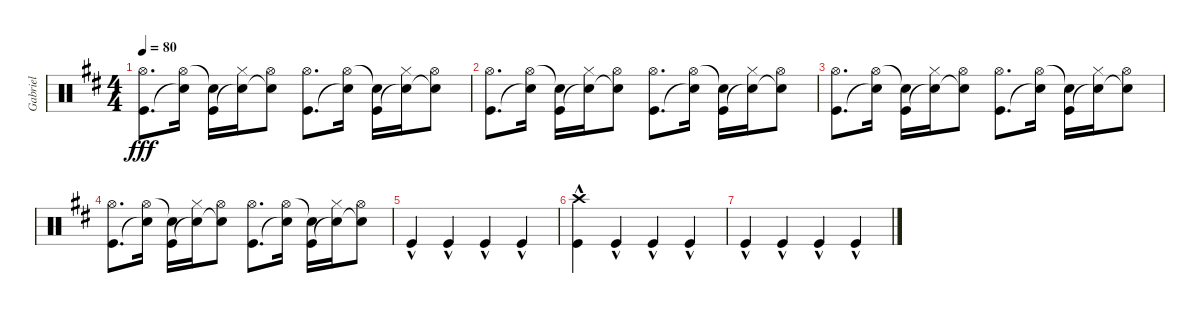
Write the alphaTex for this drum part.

\track ("Gabriel" "Gabriel") {instrument percussion}
\staff {score}
\articulation defaults
\ts (4 4)
\tempo 80
\clef neutral
\ks d
("Hi-Hat (open)" "Kick (hit)").8{d dy fff} ("Hi-Hat (open)" "Snare (hit)"{t}).16 ("Snare (hit)"{t} "Kick (hit)").16 ("Hi-Hat (closed)" "Snare (hit)"{t}).16 ("Hi-Hat (open)" "Snare (hit)"{t}).8 ("Hi-Hat (open)" "Kick (hit)").8{d} ("Hi-Hat (open)" "Snare (hit)"{t}).16 ("Snare (hit)"{t} "Kick (hit)").16 ("Hi-Hat (closed)" "Snare (hit)"{t}).16 ("Hi-Hat (open)" "Snare (hit)"{t}).8 |
("Hi-Hat (open)" "Kick (hit)").8{d} ("Hi-Hat (open)" "Snare (hit)"{t}).16 ("Snare (hit)"{t} "Kick (hit)").16 ("Hi-Hat (closed)" "Snare (hit)"{t}).16 ("Hi-Hat (open)" "Snare (hit)"{t}).8 ("Hi-Hat (open)" "Kick (hit)").8{d} ("Hi-Hat (open)" "Snare (hit)"{t}).16 ("Snare (hit)"{t} "Kick (hit)").16 ("Hi-Hat (closed)" "Snare (hit)"{t}).16 ("Hi-Hat (open)" "Snare (hit)"{t}).8 |
("Hi-Hat (open)" "Kick (hit)").8{d} ("Hi-Hat (open)" "Snare (hit)"{t}).16 ("Snare (hit)"{t} "Kick (hit)").16 ("Hi-Hat (closed)" "Snare (hit)"{t}).16 ("Hi-Hat (open)" "Snare (hit)"{t}).8 ("Hi-Hat (open)" "Kick (hit)").8{d} ("Hi-Hat (open)" "Snare (hit)"{t}).16 ("Snare (hit)"{t} "Kick (hit)").16 ("Hi-Hat (closed)" "Snare (hit)"{t}).16 ("Hi-Hat (open)" "Snare (hit)"{t}).8 |
("Hi-Hat (open)" "Kick (hit)").8{d} ("Hi-Hat (open)" "Snare (hit)"{t}).16 ("Snare (hit)"{t} "Kick (hit)").16 ("Hi-Hat (closed)" "Snare (hit)"{t}).16 ("Hi-Hat (open)" "Snare (hit)"{t}).8 ("Hi-Hat (open)" "Kick (hit)").8{d} ("Hi-Hat (open)" "Snare (hit)"{t}).16 ("Snare (hit)"{t} "Kick (hit)").16 ("Hi-Hat (closed)" "Snare (hit)"{t}).16 ("Hi-Hat (open)" "Snare (hit)"{t}).8 |
"Kick (hit)"{hac}.4 "Kick (hit)"{hac}.4 "Kick (hit)"{hac}.4 "Kick (hit)"{hac}.4 |
("Crash high (hit)" "Kick (hit)"{hac}).4{volume 16} "Kick (hit)"{hac}.4 "Kick (hit)"{hac}.4 "Kick (hit)"{hac}.4 |
"Kick (hit)"{hac}.4 "Kick (hit)"{hac}.4 "Kick (hit)"{hac}.4 "Kick (hit)"{hac}.4
